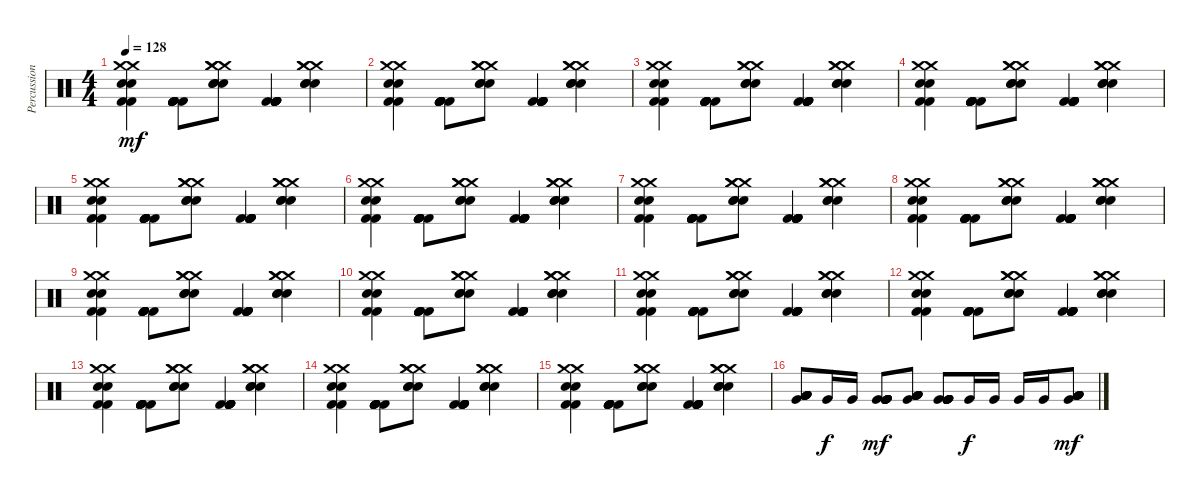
\track ("Percussion" "Percussion") {instrument percussion}
\staff {score}
\articulation defaults
\ts (4 4)
\tempo 128
\clef neutral
\ks c
("Snare (hit) 2" "Snare (hit) 2" "Kick (hit) 2" "Kick (hit) 2" "Crash medium (hit)" "Crash medium (hit)").4{dy mf} ("Kick (hit) 2" "Kick (hit) 2" "Kick (hit) 2" "Kick (hit) 2" "Kick (hit) 2" "Kick (hit) 2").8 ("Snare (hit) 2" "Crash medium (hit)" "Snare (hit) 2" "Crash medium (hit)" "Snare (hit) 2" "Crash medium (hit)").8 ("Kick (hit) 2" "Kick (hit) 2" "Kick (hit) 2" "Kick (hit) 2" "Kick (hit) 2" "Kick (hit) 2").4 ("Snare (hit) 2" "Crash medium (hit)" "Snare (hit) 2" "Crash medium (hit)" "Snare (hit) 2" "Crash medium (hit)").4 |
("Snare (hit) 2" "Snare (hit) 2" "Kick (hit) 2" "Kick (hit) 2" "Crash medium (hit)" "Crash medium (hit)").4 ("Kick (hit) 2" "Kick (hit) 2" "Kick (hit) 2" "Kick (hit) 2" "Kick (hit) 2" "Kick (hit) 2").8 ("Snare (hit) 2" "Crash medium (hit)" "Snare (hit) 2" "Crash medium (hit)" "Snare (hit) 2" "Crash medium (hit)").8 ("Kick (hit) 2" "Kick (hit) 2" "Kick (hit) 2" "Kick (hit) 2" "Kick (hit) 2" "Kick (hit) 2").4 ("Snare (hit) 2" "Crash medium (hit)" "Snare (hit) 2" "Crash medium (hit)" "Snare (hit) 2" "Crash medium (hit)").4 |
("Snare (hit) 2" "Snare (hit) 2" "Kick (hit) 2" "Kick (hit) 2" "Crash medium (hit)" "Crash medium (hit)").4 ("Kick (hit) 2" "Kick (hit) 2" "Kick (hit) 2" "Kick (hit) 2" "Kick (hit) 2" "Kick (hit) 2").8 ("Snare (hit) 2" "Crash medium (hit)" "Snare (hit) 2" "Crash medium (hit)" "Snare (hit) 2" "Crash medium (hit)").8 ("Kick (hit) 2" "Kick (hit) 2" "Kick (hit) 2" "Kick (hit) 2" "Kick (hit) 2" "Kick (hit) 2").4 ("Snare (hit) 2" "Crash medium (hit)" "Snare (hit) 2" "Crash medium (hit)" "Snare (hit) 2" "Crash medium (hit)").4 |
("Snare (hit) 2" "Snare (hit) 2" "Kick (hit) 2" "Kick (hit) 2" "Crash medium (hit)" "Crash medium (hit)").4 ("Kick (hit) 2" "Kick (hit) 2" "Kick (hit) 2" "Kick (hit) 2" "Kick (hit) 2" "Kick (hit) 2").8 ("Snare (hit) 2" "Crash medium (hit)" "Snare (hit) 2" "Crash medium (hit)" "Snare (hit) 2" "Crash medium (hit)").8 ("Kick (hit) 2" "Kick (hit) 2" "Kick (hit) 2" "Kick (hit) 2" "Kick (hit) 2" "Kick (hit) 2").4 ("Snare (hit) 2" "Crash medium (hit)" "Snare (hit) 2" "Crash medium (hit)" "Snare (hit) 2" "Crash medium (hit)").4 |
("Snare (hit) 2" "Snare (hit) 2" "Kick (hit) 2" "Kick (hit) 2" "Crash medium (hit)" "Crash medium (hit)").4 ("Kick (hit) 2" "Kick (hit) 2" "Kick (hit) 2" "Kick (hit) 2" "Kick (hit) 2" "Kick (hit) 2").8 ("Snare (hit) 2" "Crash medium (hit)" "Snare (hit) 2" "Crash medium (hit)" "Snare (hit) 2" "Crash medium (hit)").8 ("Kick (hit) 2" "Kick (hit) 2" "Kick (hit) 2" "Kick (hit) 2" "Kick (hit) 2" "Kick (hit) 2").4 ("Snare (hit) 2" "Crash medium (hit)" "Snare (hit) 2" "Crash medium (hit)" "Snare (hit) 2" "Crash medium (hit)").4 |
("Snare (hit) 2" "Snare (hit) 2" "Kick (hit) 2" "Kick (hit) 2" "Crash medium (hit)" "Crash medium (hit)").4 ("Kick (hit) 2" "Kick (hit) 2" "Kick (hit) 2" "Kick (hit) 2" "Kick (hit) 2" "Kick (hit) 2").8 ("Snare (hit) 2" "Crash medium (hit)" "Snare (hit) 2" "Crash medium (hit)" "Snare (hit) 2" "Crash medium (hit)").8 ("Kick (hit) 2" "Kick (hit) 2" "Kick (hit) 2" "Kick (hit) 2" "Kick (hit) 2" "Kick (hit) 2").4 ("Snare (hit) 2" "Crash medium (hit)" "Snare (hit) 2" "Crash medium (hit)" "Snare (hit) 2" "Crash medium (hit)").4 |
("Snare (hit) 2" "Snare (hit) 2" "Kick (hit) 2" "Kick (hit) 2" "Crash medium (hit)" "Crash medium (hit)").4 ("Kick (hit) 2" "Kick (hit) 2" "Kick (hit) 2" "Kick (hit) 2" "Kick (hit) 2" "Kick (hit) 2").8 ("Snare (hit) 2" "Crash medium (hit)" "Snare (hit) 2" "Crash medium (hit)" "Snare (hit) 2" "Crash medium (hit)").8 ("Kick (hit) 2" "Kick (hit) 2" "Kick (hit) 2" "Kick (hit) 2" "Kick (hit) 2" "Kick (hit) 2").4 ("Snare (hit) 2" "Crash medium (hit)" "Snare (hit) 2" "Crash medium (hit)" "Snare (hit) 2" "Crash medium (hit)").4 |
("Snare (hit) 2" "Snare (hit) 2" "Kick (hit) 2" "Kick (hit) 2" "Crash medium (hit)" "Crash medium (hit)").4 ("Kick (hit) 2" "Kick (hit) 2" "Kick (hit) 2" "Kick (hit) 2" "Kick (hit) 2" "Kick (hit) 2").8 ("Snare (hit) 2" "Crash medium (hit)" "Snare (hit) 2" "Crash medium (hit)" "Snare (hit) 2" "Crash medium (hit)").8 ("Kick (hit) 2" "Kick (hit) 2" "Kick (hit) 2" "Kick (hit) 2" "Kick (hit) 2" "Kick (hit) 2").4 ("Snare (hit) 2" "Crash medium (hit)" "Snare (hit) 2" "Crash medium (hit)" "Snare (hit) 2" "Crash medium (hit)").4 |
("Snare (hit) 2" "Snare (hit) 2" "Kick (hit) 2" "Kick (hit) 2" "Crash medium (hit)" "Crash medium (hit)").4 ("Kick (hit) 2" "Kick (hit) 2" "Kick (hit) 2" "Kick (hit) 2" "Kick (hit) 2" "Kick (hit) 2").8 ("Snare (hit) 2" "Crash medium (hit)" "Snare (hit) 2" "Crash medium (hit)" "Snare (hit) 2" "Crash medium (hit)").8 ("Kick (hit) 2" "Kick (hit) 2" "Kick (hit) 2" "Kick (hit) 2" "Kick (hit) 2" "Kick (hit) 2").4 ("Snare (hit) 2" "Crash medium (hit)" "Snare (hit) 2" "Crash medium (hit)" "Snare (hit) 2" "Crash medium (hit)").4 |
("Snare (hit) 2" "Snare (hit) 2" "Kick (hit) 2" "Kick (hit) 2" "Crash medium (hit)" "Crash medium (hit)").4 ("Kick (hit) 2" "Kick (hit) 2" "Kick (hit) 2" "Kick (hit) 2" "Kick (hit) 2" "Kick (hit) 2").8 ("Snare (hit) 2" "Crash medium (hit)" "Snare (hit) 2" "Crash medium (hit)" "Snare (hit) 2" "Crash medium (hit)").8 ("Kick (hit) 2" "Kick (hit) 2" "Kick (hit) 2" "Kick (hit) 2" "Kick (hit) 2" "Kick (hit) 2").4 ("Snare (hit) 2" "Crash medium (hit)" "Snare (hit) 2" "Crash medium (hit)" "Snare (hit) 2" "Crash medium (hit)").4 |
("Snare (hit) 2" "Snare (hit) 2" "Kick (hit) 2" "Kick (hit) 2" "Crash medium (hit)" "Crash medium (hit)").4 ("Kick (hit) 2" "Kick (hit) 2" "Kick (hit) 2" "Kick (hit) 2" "Kick (hit) 2" "Kick (hit) 2").8 ("Snare (hit) 2" "Crash medium (hit)" "Snare (hit) 2" "Crash medium (hit)" "Snare (hit) 2" "Crash medium (hit)").8 ("Kick (hit) 2" "Kick (hit) 2" "Kick (hit) 2" "Kick (hit) 2" "Kick (hit) 2" "Kick (hit) 2").4 ("Snare (hit) 2" "Crash medium (hit)" "Snare (hit) 2" "Crash medium (hit)" "Snare (hit) 2" "Crash medium (hit)").4 |
("Snare (hit) 2" "Snare (hit) 2" "Kick (hit) 2" "Kick (hit) 2" "Crash medium (hit)" "Crash medium (hit)").4 ("Kick (hit) 2" "Kick (hit) 2" "Kick (hit) 2" "Kick (hit) 2" "Kick (hit) 2" "Kick (hit) 2").8 ("Snare (hit) 2" "Crash medium (hit)" "Snare (hit) 2" "Crash medium (hit)" "Snare (hit) 2" "Crash medium (hit)").8 ("Kick (hit) 2" "Kick (hit) 2" "Kick (hit) 2" "Kick (hit) 2" "Kick (hit) 2" "Kick (hit) 2").4 ("Snare (hit) 2" "Crash medium (hit)" "Snare (hit) 2" "Crash medium (hit)" "Snare (hit) 2" "Crash medium (hit)").4 |
("Snare (hit) 2" "Snare (hit) 2" "Kick (hit) 2" "Kick (hit) 2" "Crash medium (hit)" "Crash medium (hit)").4 ("Kick (hit) 2" "Kick (hit) 2" "Kick (hit) 2" "Kick (hit) 2" "Kick (hit) 2" "Kick (hit) 2").8 ("Snare (hit) 2" "Crash medium (hit)" "Snare (hit) 2" "Crash medium (hit)" "Snare (hit) 2" "Crash medium (hit)").8 ("Kick (hit) 2" "Kick (hit) 2" "Kick (hit) 2" "Kick (hit) 2" "Kick (hit) 2" "Kick (hit) 2").4 ("Snare (hit) 2" "Crash medium (hit)" "Snare (hit) 2" "Crash medium (hit)" "Snare (hit) 2" "Crash medium (hit)").4 |
("Snare (hit) 2" "Snare (hit) 2" "Kick (hit) 2" "Kick (hit) 2" "Crash medium (hit)" "Crash medium (hit)").4 ("Kick (hit) 2" "Kick (hit) 2" "Kick (hit) 2" "Kick (hit) 2" "Kick (hit) 2" "Kick (hit) 2").8 ("Snare (hit) 2" "Crash medium (hit)" "Snare (hit) 2" "Crash medium (hit)" "Snare (hit) 2" "Crash medium (hit)").8 ("Kick (hit) 2" "Kick (hit) 2" "Kick (hit) 2" "Kick (hit) 2" "Kick (hit) 2" "Kick (hit) 2").4 ("Snare (hit) 2" "Crash medium (hit)" "Snare (hit) 2" "Crash medium (hit)" "Snare (hit) 2" "Crash medium (hit)").4 |
("Snare (hit) 2" "Snare (hit) 2" "Kick (hit) 2" "Kick (hit) 2" "Crash medium (hit)" "Crash medium (hit)").4 ("Kick (hit) 2" "Kick (hit) 2" "Kick (hit) 2" "Kick (hit) 2" "Kick (hit) 2" "Kick (hit) 2").8 ("Snare (hit) 2" "Crash medium (hit)" "Snare (hit) 2" "Crash medium (hit)" "Snare (hit) 2" "Crash medium (hit)").8 ("Kick (hit) 2" "Kick (hit) 2" "Kick (hit) 2" "Kick (hit) 2" "Kick (hit) 2" "Kick (hit) 2").4 ("Snare (hit) 2" "Crash medium (hit)" "Snare (hit) 2" "Crash medium (hit)" "Snare (hit) 2" "Crash medium (hit)").4 |
("Very Low Tom (hit)" "Low Tom (hit)" "Low Tom (hit)" "Low Tom (hit)" "Low Tom (hit)" "Low Tom (hit)").8 "Very Low Tom (hit)".16{dy f} "Very Low Tom (hit)".16 ("Very Low Tom (hit)" "Very Low Tom (hit)" "Very Low Tom (hit)" "Very Low Tom (hit)" "Very Low Tom (hit)" "Very Low Tom (hit)").8{dy mf} ("Very Low Tom (hit)" "Low Tom (hit)" "Low Tom (hit)" "Low Tom (hit)" "Low Tom (hit)" "Low Tom (hit)").8 ("Very Low Tom (hit)" "Very Low Tom (hit)" "Very Low Tom (hit)" "Very Low Tom (hit)" "Very Low Tom (hit)" "Very Low Tom (hit)").8 "Very Low Tom (hit)".16{dy f} "Very Low Tom (hit)".16 "Very Low Tom (hit)".16 "Very Low Tom (hit)".16 ("Very Low Tom (hit)" "Low Tom (hit)" "Low Tom (hit)" "Low Tom (hit)" "Low Tom (hit)" "Low Tom (hit)").8{dy mf}
